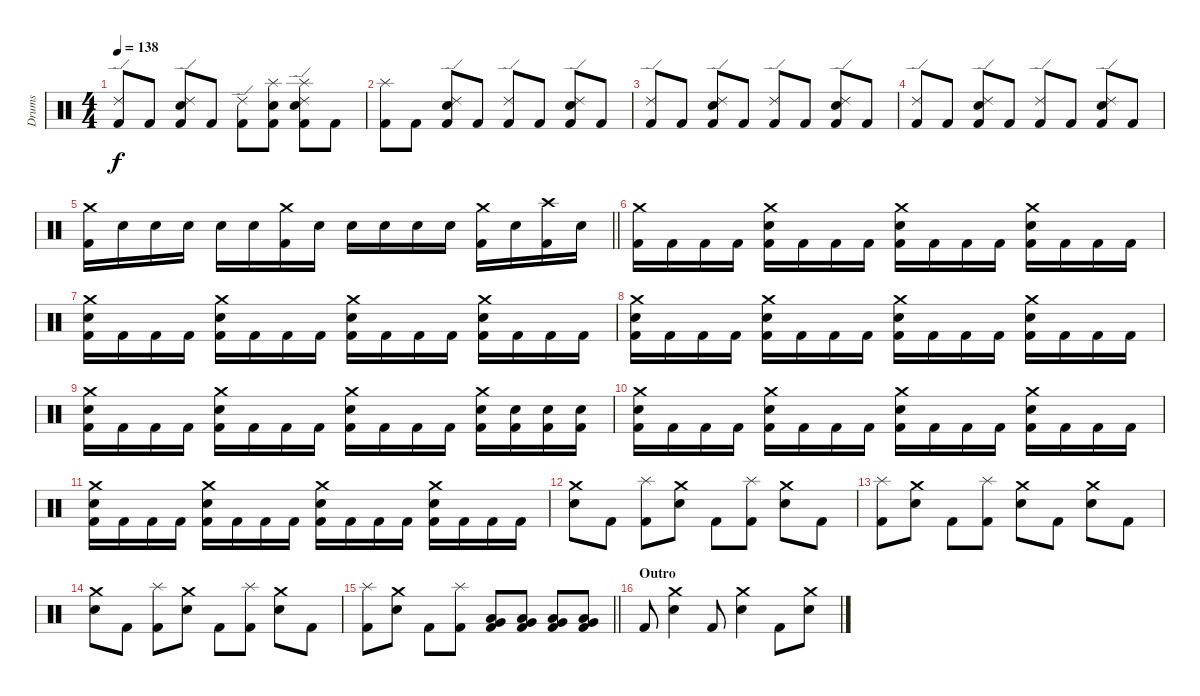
\track ("Drums" "Drums") {instrument percussion}
\staff {score}
\articulation defaults
\ts (4 4)
\tempo 138
\clef neutral
\ks c
("Ride (edge) 2" "Kick (hit) 2").8{dy f} "Kick (hit) 2".8 ("Ride (edge) 2" "Snare (hit) 2" "Kick (hit) 2").8 "Kick (hit) 2".8 ("Ride (edge) 2" "Kick (hit) 2").8 ("Splash (hit)" "Snare (hit) 2" "Kick (hit) 2").8 ("Splash (hit)" "Ride (edge) 2" "Snare (hit) 2" "Kick (hit) 2").8 "Kick (hit) 2".8 |
("Splash (hit)" "Kick (hit) 2").8 "Kick (hit) 2".8 ("Ride (edge) 2" "Snare (hit) 2" "Kick (hit) 2").8 "Kick (hit) 2".8 ("Ride (edge) 2" "Kick (hit) 2").8 "Kick (hit) 2".8 ("Ride (edge) 2" "Snare (hit) 2" "Kick (hit) 2").8 "Kick (hit) 2".8 |
("Ride (edge) 2" "Kick (hit) 2").8 "Kick (hit) 2".8 ("Ride (edge) 2" "Snare (hit) 2" "Kick (hit) 2").8 "Kick (hit) 2".8 ("Ride (edge) 2" "Kick (hit) 2").8 "Kick (hit) 2".8 ("Ride (edge) 2" "Snare (hit) 2" "Kick (hit) 2").8 "Kick (hit) 2".8 |
("Ride (edge) 2" "Kick (hit) 2").8 "Kick (hit) 2".8 ("Ride (edge) 2" "Snare (hit) 2" "Kick (hit) 2").8 "Kick (hit) 2".8 ("Ride (edge) 2" "Kick (hit) 2").8 "Kick (hit) 2".8 ("Ride (edge) 2" "Snare (hit) 2" "Kick (hit) 2").8 "Kick (hit) 2".8 |
\barLineRight lightlight
("Crash medium (hit)" "Kick (hit) 2").16 "Snare (hit) 2".16 "Snare (hit) 2".16 "Snare (hit) 2".16 "Snare (hit) 2".16 "Snare (hit) 2".16 ("Crash medium (hit)" "Kick (hit) 2").16 "Snare (hit) 2".16 "Snare (hit) 2".16 "Snare (hit) 2".16 "Snare (hit) 2".16 "Snare (hit) 2".16 ("Crash medium (hit)" "Kick (hit) 2").16 "Snare (hit) 2".16 ("Crash high (hit)" "Kick (hit) 2").16 "Snare (hit) 2".16 |
\section ("" "")
("Crash medium (hit)" "Kick (hit) 2").16 "Kick (hit) 2".16 "Kick (hit) 2".16 "Kick (hit) 2".16 ("Crash medium (hit)" "Snare (hit) 2" "Kick (hit) 2").16 "Kick (hit) 2".16 "Kick (hit) 2".16 "Kick (hit) 2".16 ("Crash medium (hit)" "Snare (hit) 2" "Kick (hit) 2").16 "Kick (hit) 2".16 "Kick (hit) 2".16 "Kick (hit) 2".16 ("Crash medium (hit)" "Snare (hit) 2" "Kick (hit) 2").16 "Kick (hit) 2".16 "Kick (hit) 2".16 "Kick (hit) 2".16 |
("Crash medium (hit)" "Snare (hit) 2" "Kick (hit) 2").16 "Kick (hit) 2".16 "Kick (hit) 2".16 "Kick (hit) 2".16 ("Crash medium (hit)" "Snare (hit) 2" "Kick (hit) 2").16 "Kick (hit) 2".16 "Kick (hit) 2".16 "Kick (hit) 2".16 ("Crash medium (hit)" "Snare (hit) 2" "Kick (hit) 2").16 "Kick (hit) 2".16 "Kick (hit) 2".16 "Kick (hit) 2".16 ("Crash medium (hit)" "Snare (hit) 2" "Kick (hit) 2").16 "Kick (hit) 2".16 "Kick (hit) 2".16 "Kick (hit) 2".16 |
("Crash medium (hit)" "Snare (hit) 2" "Kick (hit) 2").16 "Kick (hit) 2".16 "Kick (hit) 2".16 "Kick (hit) 2".16 ("Crash medium (hit)" "Snare (hit) 2" "Kick (hit) 2").16 "Kick (hit) 2".16 "Kick (hit) 2".16 "Kick (hit) 2".16 ("Crash medium (hit)" "Snare (hit) 2" "Kick (hit) 2").16 "Kick (hit) 2".16 "Kick (hit) 2".16 "Kick (hit) 2".16 ("Crash medium (hit)" "Snare (hit) 2" "Kick (hit) 2").16 "Kick (hit) 2".16 "Kick (hit) 2".16 "Kick (hit) 2".16 |
("Crash medium (hit)" "Snare (hit) 2" "Kick (hit) 2").16 "Kick (hit) 2".16 "Kick (hit) 2".16 "Kick (hit) 2".16 ("Crash medium (hit)" "Snare (hit) 2" "Kick (hit) 2").16 "Kick (hit) 2".16 "Kick (hit) 2".16 "Kick (hit) 2".16 ("Crash medium (hit)" "Snare (hit) 2" "Kick (hit) 2").16 "Kick (hit) 2".16 "Kick (hit) 2".16 "Kick (hit) 2".16 ("Crash medium (hit)" "Snare (hit) 2" "Kick (hit) 2").16 ("Snare (hit) 2" "Kick (hit) 2").16 ("Snare (hit) 2" "Kick (hit) 2").16 ("Snare (hit) 2" "Kick (hit) 2").16 |
("Crash medium (hit)" "Snare (hit) 2" "Kick (hit) 2").16 "Kick (hit) 2".16 "Kick (hit) 2".16 "Kick (hit) 2".16 ("Crash medium (hit)" "Snare (hit) 2" "Kick (hit) 2").16 "Kick (hit) 2".16 "Kick (hit) 2".16 "Kick (hit) 2".16 ("Crash medium (hit)" "Snare (hit) 2" "Kick (hit) 2").16 "Kick (hit) 2".16 "Kick (hit) 2".16 "Kick (hit) 2".16 ("Crash medium (hit)" "Snare (hit) 2" "Kick (hit) 2").16 "Kick (hit) 2".16 "Kick (hit) 2".16 "Kick (hit) 2".16 |
("Crash medium (hit)" "Snare (hit) 2" "Kick (hit) 2").16 "Kick (hit) 2".16 "Kick (hit) 2".16 "Kick (hit) 2".16 ("Crash medium (hit)" "Snare (hit) 2" "Kick (hit) 2").16 "Kick (hit) 2".16 "Kick (hit) 2".16 "Kick (hit) 2".16 ("Crash medium (hit)" "Snare (hit) 2" "Kick (hit) 2").16 "Kick (hit) 2".16 "Kick (hit) 2".16 "Kick (hit) 2".16 ("Crash medium (hit)" "Snare (hit) 2" "Kick (hit) 2").16 "Kick (hit) 2".16 "Kick (hit) 2".16 "Kick (hit) 2".16 |
("Crash medium (hit)" "Snare (hit) 2").8 "Kick (hit) 2".8 ("Splash (hit)" "Kick (hit) 2").8 ("Crash medium (hit)" "Snare (hit) 2").8 "Kick (hit) 2".8 ("Splash (hit)" "Kick (hit) 2").8 ("Crash medium (hit)" "Snare (hit) 2").8 "Kick (hit) 2".8 |
("Splash (hit)" "Kick (hit) 2").8 ("Crash medium (hit)" "Snare (hit) 2").8 "Kick (hit) 2".8 ("Splash (hit)" "Kick (hit) 2").8 ("Crash medium (hit)" "Snare (hit) 2").8 "Kick (hit) 2".8 ("Crash medium (hit)" "Snare (hit) 2").8 "Kick (hit) 2".8 |
("Crash medium (hit)" "Snare (hit) 2").8 "Kick (hit) 2".8 ("Splash (hit)" "Kick (hit) 2").8 ("Crash medium (hit)" "Snare (hit) 2").8 "Kick (hit) 2".8 ("Splash (hit)" "Kick (hit) 2").8 ("Crash medium (hit)" "Snare (hit) 2").8 "Kick (hit) 2".8 |
\barLineRight lightlight
("Splash (hit)" "Kick (hit) 2").8 ("Crash medium (hit)" "Snare (hit) 2").8 "Kick (hit) 2".8 ("Splash (hit)" "Kick (hit) 2").8 ("Low Tom (hit)" "Very Low Tom (hit)" "Kick (hit) 2").8 ("Low Tom (hit)" "Very Low Tom (hit)" "Kick (hit) 2").8 ("Low Tom (hit)" "Very Low Tom (hit)" "Kick (hit) 2").8 ("Low Tom (hit)" "Very Low Tom (hit)" "Kick (hit) 2").8 |
\section ("" "Outro")
"Kick (hit) 2".8 ("Crash medium (hit)" "Snare (hit) 2").4 "Kick (hit) 2".8 ("Crash medium (hit)" "Snare (hit) 2").4 "Kick (hit) 2".8 ("Crash medium (hit)" "Snare (hit) 2").8
